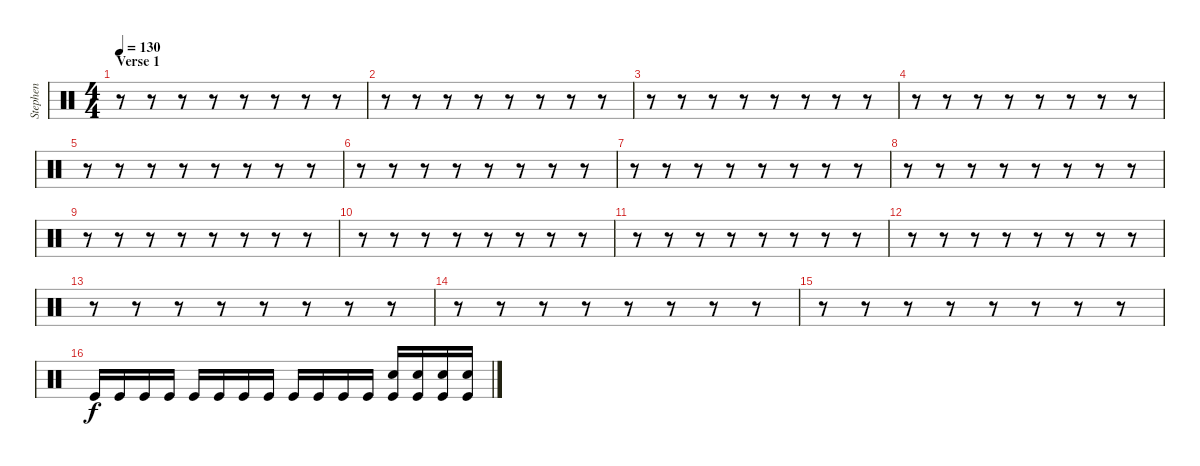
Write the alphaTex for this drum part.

\track ("Stephen" "Stephen") {instrument percussion}
\staff {score}
\articulation defaults
\ts (4 4)
\section ("" "Verse 1")
\tempo 130
\clef neutral
\ks c
r.8{dy f} r.8 r.8 r.8 r.8 r.8 r.8 r.8 |
r.8 r.8 r.8 r.8 r.8 r.8 r.8 r.8 |
r.8 r.8 r.8 r.8 r.8 r.8 r.8 r.8 |
r.8 r.8 r.8 r.8 r.8 r.8 r.8 r.8 |
r.8 r.8 r.8 r.8 r.8 r.8 r.8 r.8 |
r.8 r.8 r.8 r.8 r.8 r.8 r.8 r.8 |
r.8 r.8 r.8 r.8 r.8 r.8 r.8 r.8 |
r.8 r.8 r.8 r.8 r.8 r.8 r.8 r.8 |
r.8 r.8 r.8 r.8 r.8 r.8 r.8 r.8 |
r.8 r.8 r.8 r.8 r.8 r.8 r.8 r.8 |
r.8 r.8 r.8 r.8 r.8 r.8 r.8 r.8 |
r.8 r.8 r.8 r.8 r.8 r.8 r.8 r.8 |
r.8 r.8 r.8 r.8 r.8 r.8 r.8 r.8 |
r.8 r.8 r.8 r.8 r.8 r.8 r.8 r.8 |
r.8 r.8 r.8 r.8 r.8 r.8 r.8 r.8 |
"Kick (hit)".16 "Kick (hit)".16 "Kick (hit)".16 "Kick (hit)".16 "Kick (hit)".16 "Kick (hit)".16 "Kick (hit)".16 "Kick (hit)".16 "Kick (hit)".16 "Kick (hit)".16 "Kick (hit)".16 "Kick (hit)".16 ("Electric Snare (hit)" "Kick (hit)").16 ("Electric Snare (hit)" "Kick (hit)").16 ("Electric Snare (hit)" "Kick (hit)").16 ("Electric Snare (hit)" "Kick (hit)").16
